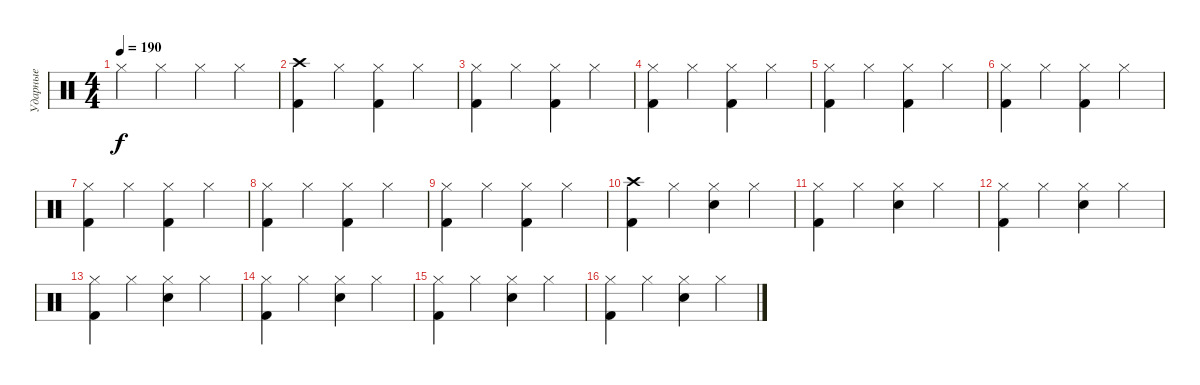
\track ("Ударные" "Ударные") {instrument percussion}
\staff {score}
\articulation defaults
\ts (4 4)
\tempo 190
\clef neutral
\ks c "Hi-Hat (closed)".4{dy f} "Hi-Hat (closed)".4 "Hi-Hat (closed)".4 "Hi-Hat (closed)".4
|
("Crash high (hit)" "Kick (hit) 2").4 "Hi-Hat (closed)".4 ("Hi-Hat (closed)" "Kick (hit) 2").4 "Hi-Hat (closed)".4 |
("Hi-Hat (closed)" "Kick (hit) 2").4 "Hi-Hat (closed)".4 ("Hi-Hat (closed)" "Kick (hit) 2").4 "Hi-Hat (closed)".4 |
("Hi-Hat (closed)" "Kick (hit) 2").4 "Hi-Hat (closed)".4 ("Hi-Hat (closed)" "Kick (hit) 2").4 "Hi-Hat (closed)".4 |
("Hi-Hat (closed)" "Kick (hit) 2").4 "Hi-Hat (closed)".4 ("Hi-Hat (closed)" "Kick (hit) 2").4 "Hi-Hat (closed)".4 |
("Hi-Hat (closed)" "Kick (hit) 2").4 "Hi-Hat (closed)".4 ("Hi-Hat (closed)" "Kick (hit) 2").4 "Hi-Hat (closed)".4 |
("Hi-Hat (closed)" "Kick (hit) 2").4 "Hi-Hat (closed)".4 ("Hi-Hat (closed)" "Kick (hit) 2").4 "Hi-Hat (closed)".4 |
("Hi-Hat (closed)" "Kick (hit) 2").4 "Hi-Hat (closed)".4 ("Hi-Hat (closed)" "Kick (hit) 2").4 "Hi-Hat (closed)".4 |
("Hi-Hat (closed)" "Kick (hit) 2").4 "Hi-Hat (closed)".4 ("Hi-Hat (closed)" "Kick (hit) 2").4 "Hi-Hat (closed)".4 |
("Crash high (hit)" "Kick (hit) 2").4 "Hi-Hat (closed)".4 ("Hi-Hat (closed)" "Electric Snare (hit)").4 "Hi-Hat (closed)".4 |
("Hi-Hat (closed)" "Kick (hit) 2").4 "Hi-Hat (closed)".4 ("Hi-Hat (closed)" "Electric Snare (hit)").4 "Hi-Hat (closed)".4 |
("Hi-Hat (closed)" "Kick (hit) 2").4 "Hi-Hat (closed)".4 ("Hi-Hat (closed)" "Electric Snare (hit)").4 "Hi-Hat (closed)".4 |
("Hi-Hat (closed)" "Kick (hit) 2").4 "Hi-Hat (closed)".4 ("Hi-Hat (closed)" "Electric Snare (hit)").4 "Hi-Hat (closed)".4 |
("Hi-Hat (closed)" "Kick (hit) 2").4 "Hi-Hat (closed)".4 ("Hi-Hat (closed)" "Electric Snare (hit)").4 "Hi-Hat (closed)".4 |
("Hi-Hat (closed)" "Kick (hit) 2").4 "Hi-Hat (closed)".4 ("Hi-Hat (closed)" "Electric Snare (hit)").4 "Hi-Hat (closed)".4 |
("Hi-Hat (closed)" "Kick (hit) 2").4 "Hi-Hat (closed)".4 ("Hi-Hat (closed)" "Electric Snare (hit)").4 "Hi-Hat (closed)".4
